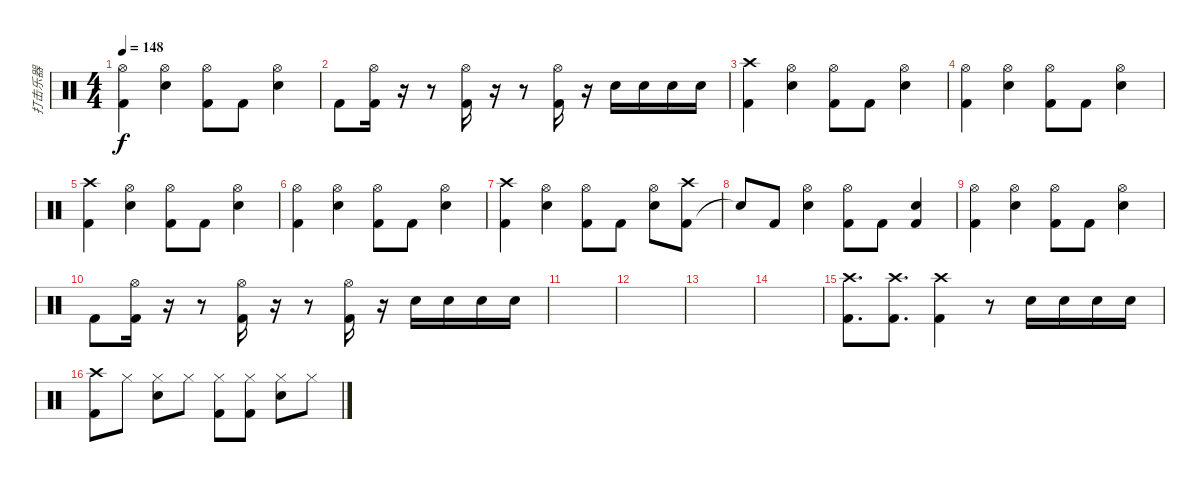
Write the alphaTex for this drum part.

\track ("打击乐器" "打击乐器") {instrument percussion}
\staff {score}
\articulation defaults
\ts (4 4)
\tempo 148
\clef neutral
\ks c
("Kick (hit) 2" "Hi-Hat (open)").4{dy f} ("Electric Snare (hit)" "Hi-Hat (open)").4 ("Kick (hit) 2" "Hi-Hat (open)").8 "Kick (hit) 2".8 ("Electric Snare (hit)" "Hi-Hat (open)").4 |
"Kick (hit) 2".8 ("Hi-Hat (open)" "Kick (hit) 2").16 r.16 r.8 ("Hi-Hat (open)" "Kick (hit) 2").16 r.16 r.8 ("Hi-Hat (open)" "Kick (hit) 2").16 r.16 "Electric Snare (hit)".16 "Electric Snare (hit)".16 "Electric Snare (hit)".16 "Electric Snare (hit)".16 |
("Kick (hit) 2" "Crash high (hit)").4 ("Electric Snare (hit)" "Hi-Hat (open)").4 ("Kick (hit) 2" "Hi-Hat (open)").8 "Kick (hit) 2".8 ("Electric Snare (hit)" "Hi-Hat (open)").4 |
("Kick (hit) 2" "Hi-Hat (open)").4 ("Electric Snare (hit)" "Hi-Hat (open)").4 ("Kick (hit) 2" "Hi-Hat (open)").8 "Kick (hit) 2".8 ("Electric Snare (hit)" "Hi-Hat (open)").4 |
("Kick (hit) 2" "Crash high (hit)").4 ("Electric Snare (hit)" "Hi-Hat (open)").4 ("Kick (hit) 2" "Hi-Hat (open)").8 "Kick (hit) 2".8 ("Electric Snare (hit)" "Hi-Hat (open)").4 |
("Kick (hit) 2" "Hi-Hat (open)").4 ("Electric Snare (hit)" "Hi-Hat (open)").4 ("Kick (hit) 2" "Hi-Hat (open)").8 "Kick (hit) 2".8 ("Electric Snare (hit)" "Hi-Hat (open)").4 |
("Kick (hit) 2" "Crash high (hit)").4 ("Electric Snare (hit)" "Hi-Hat (open)").4 ("Kick (hit) 2" "Hi-Hat (open)").8 "Kick (hit) 2".8 ("Electric Snare (hit)" "Hi-Hat (open)").8 ("Kick (hit) 2" "Crash high (hit)").8 |
"Snare (hit)"{t}.8 "Kick (hit) 2".8 ("Electric Snare (hit)" "Hi-Hat (open)").4 ("Kick (hit) 2" "Hi-Hat (open)").8 "Kick (hit) 2".8 ("Electric Snare (hit)" "Kick (hit) 2").4 |
("Kick (hit) 2" "Hi-Hat (open)").4 ("Electric Snare (hit)" "Hi-Hat (open)").4 ("Kick (hit) 2" "Hi-Hat (open)").8 "Kick (hit) 2".8 ("Electric Snare (hit)" "Hi-Hat (open)").4 |
"Kick (hit) 2".8 ("Hi-Hat (open)" "Kick (hit) 2").16 r.16 r.8 ("Hi-Hat (open)" "Kick (hit) 2").16 r.16 r.8 ("Hi-Hat (open)" "Kick (hit) 2").16 r.16 "Electric Snare (hit)".16 "Electric Snare (hit)".16 "Electric Snare (hit)".16 "Electric Snare (hit)".16 |
|
|
|
|
("Crash high (hit)" "Kick (hit) 2").8{d} ("Crash high (hit)" "Kick (hit) 2").8{d} ("Kick (hit) 2" "Crash high (hit)").4 r.8 "Electric Snare (hit)".16 "Electric Snare (hit)".16 "Electric Snare (hit)".16 "Electric Snare (hit)".16 |
("Crash high (hit)" "Kick (hit) 2").8 "Hi-Hat (closed)".8 ("Hi-Hat (closed)" "Electric Snare (hit)").8 "Hi-Hat (closed)".8 ("Hi-Hat (closed)" "Kick (hit) 2").8 ("Hi-Hat (closed)" "Kick (hit) 2").8 ("Hi-Hat (closed)" "Electric Snare (hit)").8 "Hi-Hat (closed)".8
